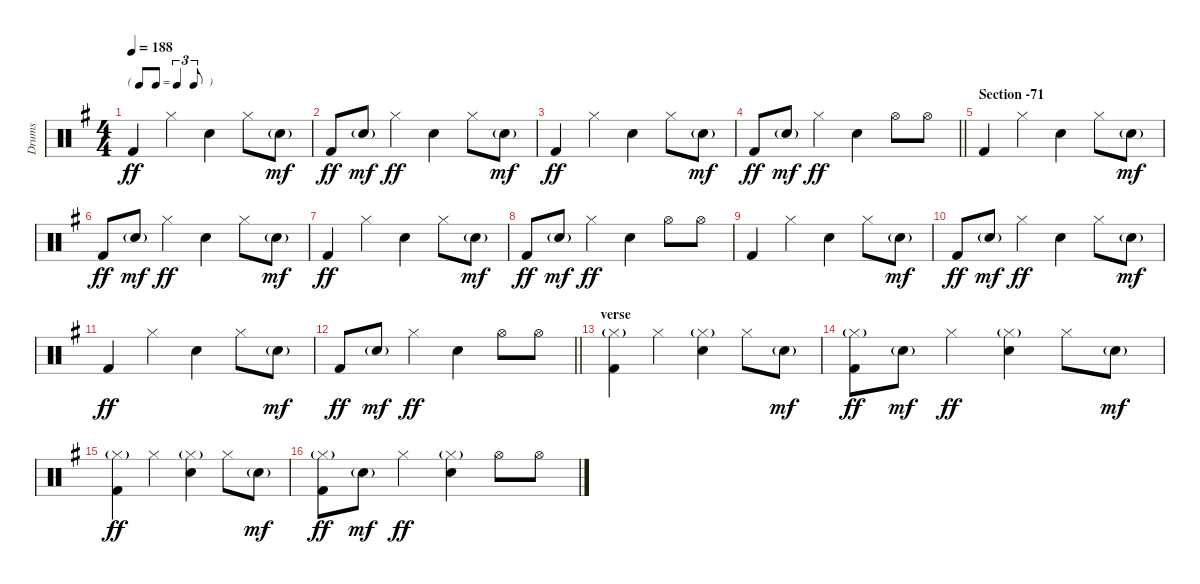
\track ("Drums" "Drums") {instrument percussion}
\staff {score}
\articulation defaults
\ts (4 4)
\tf triplet8th
\tempo 188
\clef neutral
\ks g "Kick (hit) 2".4{dy ff} "Hi-Hat (closed)".4 "Snare (hit) 2".4 "Hi-Hat (closed)".8 "Snare (hit) 2"{g}.8{dy mf}
|
"Kick (hit) 2".8{dy ff} "Snare (hit) 2"{g}.8{dy mf} "Hi-Hat (closed)".4{dy ff} "Snare (hit) 2".4 "Hi-Hat (closed)".8 "Snare (hit) 2"{g}.8{dy mf} |
"Kick (hit) 2".4{dy ff} "Hi-Hat (closed)".4 "Snare (hit) 2".4 "Hi-Hat (closed)".8 "Snare (hit) 2"{g}.8{dy mf} |
\barLineRight lightlight "Kick (hit) 2".8{dy ff} "Snare (hit) 2"{g}.8{dy mf} "Hi-Hat (closed)".4{dy ff} "Snare (hit) 2".4 "Hi-Hat (open)".8 "Hi-Hat (open)".8
|
\section ("" "Section -71")
"Kick (hit) 2".4 "Hi-Hat (closed)".4 "Snare (hit) 2".4 "Hi-Hat (closed)".8 "Snare (hit) 2"{g}.8{dy mf} |
"Kick (hit) 2".8{dy ff} "Snare (hit) 2"{g}.8{dy mf} "Hi-Hat (closed)".4{dy ff} "Snare (hit) 2".4 "Hi-Hat (closed)".8 "Snare (hit) 2"{g}.8{dy mf} |
"Kick (hit) 2".4{dy ff} "Hi-Hat (closed)".4 "Snare (hit) 2".4 "Hi-Hat (closed)".8 "Snare (hit) 2"{g}.8{dy mf} |
"Kick (hit) 2".8{dy ff} "Snare (hit) 2"{g}.8{dy mf} "Hi-Hat (closed)".4{dy ff} "Snare (hit) 2".4 "Hi-Hat (open)".8 "Hi-Hat (open)".8 |
"Kick (hit) 2".4 "Hi-Hat (closed)".4 "Snare (hit) 2".4 "Hi-Hat (closed)".8 "Snare (hit) 2"{g}.8{dy mf} |
"Kick (hit) 2".8{dy ff} "Snare (hit) 2"{g}.8{dy mf} "Hi-Hat (closed)".4{dy ff} "Snare (hit) 2".4 "Hi-Hat (closed)".8 "Snare (hit) 2"{g}.8{dy mf} |
"Kick (hit) 2".4{dy ff} "Hi-Hat (closed)".4 "Snare (hit) 2".4 "Hi-Hat (closed)".8 "Snare (hit) 2"{g}.8{dy mf} |
\barLineRight lightlight "Kick (hit) 2".8{dy ff} "Snare (hit) 2"{g}.8{dy mf} "Hi-Hat (closed)".4{dy ff} "Snare (hit) 2".4 "Hi-Hat (open)".8 "Hi-Hat (open)".8
|
\section ("" "verse")
("Hi-Hat (closed)"{g} "Kick (hit) 2").4 "Hi-Hat (closed)".4 ("Hi-Hat (closed)"{g} "Snare (hit) 2").4 "Hi-Hat (closed)".8 "Snare (hit) 2"{g}.8{dy mf} |
("Hi-Hat (closed)"{g} "Kick (hit) 2").8{dy ff} "Snare (hit) 2"{g}.8{dy mf} "Hi-Hat (closed)".4{dy ff} ("Hi-Hat (closed)"{g} "Snare (hit) 2").4 "Hi-Hat (closed)".8 "Snare (hit) 2"{g}.8{dy mf} |
("Hi-Hat (closed)"{g} "Kick (hit) 2").4{dy ff} "Hi-Hat (closed)".4 ("Hi-Hat (closed)"{g} "Snare (hit) 2").4 "Hi-Hat (closed)".8 "Snare (hit) 2"{g}.8{dy mf} |
("Hi-Hat (closed)"{g} "Kick (hit) 2").8{dy ff} "Snare (hit) 2"{g}.8{dy mf} "Hi-Hat (closed)".4{dy ff} ("Hi-Hat (closed)"{g} "Snare (hit) 2").4 "Hi-Hat (open)".8 "Hi-Hat (open)".8
